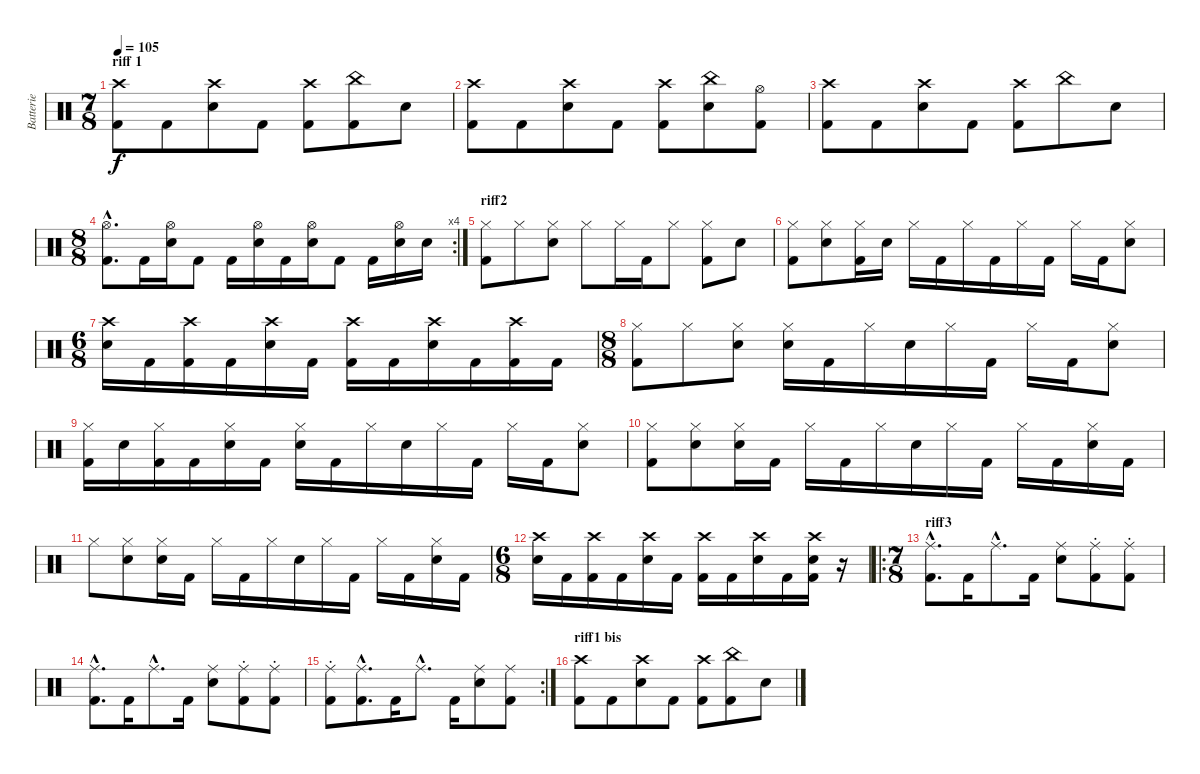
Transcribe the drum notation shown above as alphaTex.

\track ("Batterie" "Batterie") {instrument percussion}
\staff {score}
\articulation defaults
\ts (7 8)
\section ("" "riff 1")
\tempo 105
\clef neutral
\ks c
("Kick (hit) 2" "Crash high (hit)").8{dy f} "Kick (hit) 2".8 ("Electric Snare (hit)" "Crash high (hit)").8 "Kick (hit) 2".8 ("Kick (hit) 2" "Crash high (hit)").8 ("Kick (hit) 2" "China (hit)").8 "Electric Snare (hit)".8 |
("Kick (hit) 2" "Crash high (hit)").8 "Kick (hit) 2".8 ("Electric Snare (hit)" "Crash high (hit)").8 "Kick (hit) 2".8 ("Kick (hit) 2" "Crash high (hit)").8 ("Electric Snare (hit)" "China (hit)").8 ("Kick (hit) 2" "Hi-Hat (open)").8 |
("Kick (hit) 2" "Crash high (hit)").8 "Kick (hit) 2".8 ("Electric Snare (hit)" "Crash high (hit)").8 "Kick (hit) 2".8 ("Kick (hit) 2" "Crash high (hit)").8 "China (hit)".8 "Electric Snare (hit)".8 |
\rc 4
\ts (8 8)
("Kick (hit) 2"{hac} "Hi-Hat (open)"{hac}).8{d} "Kick (hit) 2".16 ("Electric Snare (hit)" "Hi-Hat (open)").16 "Kick (hit) 2".8 "Kick (hit) 2".16 ("Electric Snare (hit)" "Hi-Hat (open)").16 "Kick (hit) 2".16 ("Electric Snare (hit)" "Hi-Hat (open)").16 "Kick (hit) 2".8 "Kick (hit) 2".16 ("Electric Snare (hit)" "Hi-Hat (open)").16 "Electric Snare (hit)".16 |
\section ("" "riff2")
("Kick (hit) 2" "Hi-Hat (closed)").8 "Hi-Hat (closed)".8 ("Electric Snare (hit)" "Hi-Hat (closed)").8 "Hi-Hat (closed)".8 "Hi-Hat (closed)".16 "Kick (hit) 2".16 "Hi-Hat (closed)".8 ("Kick (hit) 2" "Hi-Hat (closed)").8 "Electric Snare (hit)".8 |
("Kick (hit) 2" "Hi-Hat (closed)").8 ("Electric Snare (hit)" "Hi-Hat (closed)").8 ("Kick (hit) 2" "Hi-Hat (closed)").16 "Electric Snare (hit)".16 "Hi-Hat (closed)".16 "Kick (hit) 2".16 "Hi-Hat (closed)".16 "Kick (hit) 2".16 "Hi-Hat (closed)".16 "Kick (hit) 2".16 "Hi-Hat (closed)".16 "Kick (hit) 2".16 ("Electric Snare (hit)" "Hi-Hat (closed)").8 |
\ts (6 8)
("Electric Snare (hit)" "Crash high (hit)").16 "Kick (hit) 2".16 ("Kick (hit) 2" "Crash high (hit)").16 "Kick (hit) 2".16 ("Electric Snare (hit)" "Crash high (hit)").16 "Kick (hit) 2".16 ("Kick (hit) 2" "Crash high (hit)").16 "Kick (hit) 2".16 ("Electric Snare (hit)" "Crash high (hit)").16 "Kick (hit) 2".16 ("Kick (hit) 2" "Crash high (hit)").16 "Kick (hit) 2".16 |
\ts (8 8)
("Kick (hit) 2" "Hi-Hat (closed)").8 "Hi-Hat (closed)".8 ("Electric Snare (hit)" "Hi-Hat (closed)").8 ("Electric Snare (hit)" "Hi-Hat (closed)").16 "Kick (hit) 2".16 "Hi-Hat (closed)".16 "Electric Snare (hit)".16 "Hi-Hat (closed)".16 "Kick (hit) 2".16 "Hi-Hat (closed)".16 "Kick (hit) 2".16 ("Electric Snare (hit)" "Hi-Hat (closed)").8 |
("Kick (hit) 2" "Hi-Hat (closed)").16 "Electric Snare (hit)".16 ("Kick (hit) 2" "Hi-Hat (closed)").16 "Kick (hit) 2".16 ("Electric Snare (hit)" "Hi-Hat (closed)").16 "Kick (hit) 2".16 ("Electric Snare (hit)" "Hi-Hat (closed)").16 "Kick (hit) 2".16 "Hi-Hat (closed)".16 "Electric Snare (hit)".16 "Hi-Hat (closed)".16 "Kick (hit) 2".16 "Hi-Hat (closed)".16 "Kick (hit) 2".16 ("Electric Snare (hit)" "Hi-Hat (closed)").8 |
("Kick (hit) 2" "Hi-Hat (closed)").8 ("Electric Snare (hit)" "Hi-Hat (closed)").8 ("Electric Snare (hit)" "Hi-Hat (closed)").16 "Kick (hit) 2".16 "Hi-Hat (closed)".16 "Kick (hit) 2".16 "Hi-Hat (closed)".16 "Electric Snare (hit)".16 "Hi-Hat (closed)".16 "Kick (hit) 2".16 "Hi-Hat (closed)".16 "Kick (hit) 2".16 ("Electric Snare (hit)" "Hi-Hat (closed)").16 "Kick (hit) 2".16 |
"Hi-Hat (closed)".8 ("Electric Snare (hit)" "Hi-Hat (closed)").8 ("Electric Snare (hit)" "Hi-Hat (closed)").16 "Kick (hit) 2".16 "Hi-Hat (closed)".16 "Kick (hit) 2".16 "Hi-Hat (closed)".16 "Electric Snare (hit)".16 "Hi-Hat (closed)".16 "Kick (hit) 2".16 "Hi-Hat (closed)".16 "Kick (hit) 2".16 ("Electric Snare (hit)" "Hi-Hat (closed)").16 "Kick (hit) 2".16 |
\ts (6 8)
("Electric Snare (hit)" "Crash high (hit)").16 "Kick (hit) 2".16 ("Kick (hit) 2" "Crash high (hit)").16 "Kick (hit) 2".16 ("Electric Snare (hit)" "Crash high (hit)").16 "Kick (hit) 2".16 ("Kick (hit) 2" "Crash high (hit)").16 "Kick (hit) 2".16 ("Electric Snare (hit)" "Crash high (hit)").16 "Kick (hit) 2".16 ("Kick (hit) 2" "Electric Snare (hit)" "Crash high (hit)").16 r.16 |
\ro
\ts (7 8)
\section ("" "riff3")
("Kick (hit) 2"{hac} "Ride (middle)"{hac}).8{d} "Kick (hit) 2".16 "Ride (middle)"{hac}.8{d} "Kick (hit) 2".16 ("Electric Snare (hit)" "Ride (middle)").8 ("Kick (hit) 2"{st} "Ride (middle)").8 ("Kick (hit) 2"{st} "Ride (middle)").8 |
("Kick (hit) 2"{hac} "Ride (middle)"{hac}).8{d} "Kick (hit) 2".16 "Ride (middle)"{hac}.8{d} "Kick (hit) 2".16 ("Electric Snare (hit)" "Ride (middle)").8 ("Kick (hit) 2"{st} "Ride (middle)").8 ("Kick (hit) 2"{st} "Ride (middle)").8 |
\rc 2
("Kick (hit) 2"{st} "Ride (middle)").8 ("Kick (hit) 2"{hac} "Ride (middle)"{hac}).8{d} "Kick (hit) 2".16 "Ride (middle)"{hac}.8{d} "Kick (hit) 2".16 ("Electric Snare (hit)" "Ride (middle)").8 ("Kick (hit) 2" "Ride (middle)").8 |
\section ("" "riff1 bis")
("Kick (hit) 2" "Crash high (hit)").8 "Kick (hit) 2".8 ("Electric Snare (hit)" "Crash high (hit)").8 "Kick (hit) 2".8 ("Kick (hit) 2" "Crash high (hit)").8 ("Kick (hit) 2" "China (hit)").8 "Electric Snare (hit)".8
